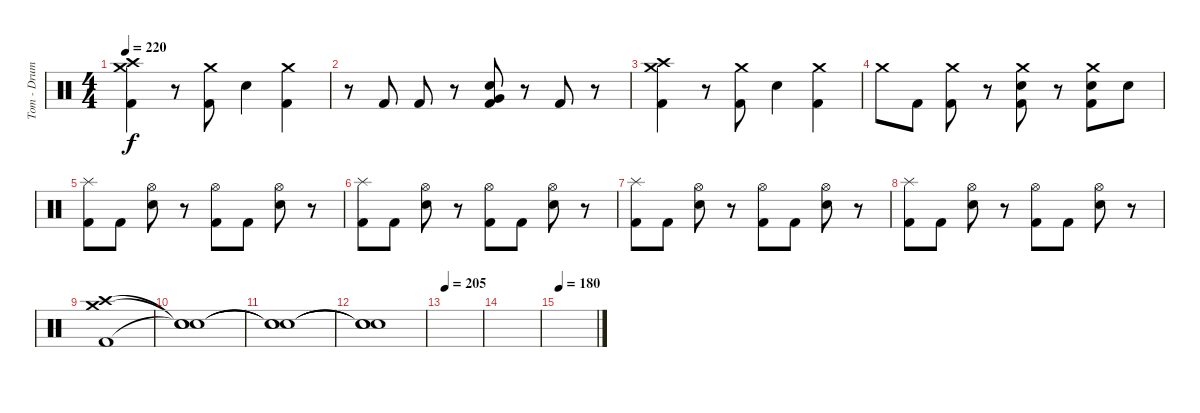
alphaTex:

\track ("Tom - Drums" "Tom - Drum") {instrument percussion}
\staff {score}
\articulation defaults
\ts (4 4)
\tempo 220
\clef neutral
\ks c
("Crash high (hit)" "Crash medium (hit)" "Kick (hit) 2").4{dy f} r.8 ("Crash medium (hit)" "Kick (hit) 2").8 "Electric Snare (hit)".4 ("Crash medium (hit)" "Kick (hit) 2").4 |
r.8 "Kick (hit) 2".8 "Kick (hit) 2".8 r.8 ("Electric Snare (hit)" "Kick (hit) 2" "Very Low Tom (hit)").8 r.8 "Kick (hit) 2".8 r.8 |
("Crash high (hit)" "Crash medium (hit)" "Kick (hit) 2").4 r.8 ("Crash medium (hit)" "Kick (hit) 2").8 "Electric Snare (hit)".4 ("Crash medium (hit)" "Kick (hit) 2").4 |
"Crash medium (hit)".8 "Kick (hit) 2".8 ("Crash medium (hit)" "Kick (hit) 2").8 r.8 ("Crash medium (hit)" "Electric Snare (hit)" "Kick (hit) 2").8 r.8 ("Crash medium (hit)" "Electric Snare (hit)" "Kick (hit) 2").8 "Electric Snare (hit)".8 |
("Splash (hit)" "Kick (hit) 2").8 "Kick (hit) 2".8 ("Hi-Hat (open)" "Electric Snare (hit)").8 r.8 ("Hi-Hat (open)" "Kick (hit) 2").8 "Kick (hit) 2".8 ("Hi-Hat (open)" "Electric Snare (hit)").8 r.8 |
("Splash (hit)" "Kick (hit) 2").8 "Kick (hit) 2".8 ("Hi-Hat (open)" "Electric Snare (hit)").8 r.8 ("Hi-Hat (open)" "Kick (hit) 2").8 "Kick (hit) 2".8 ("Hi-Hat (open)" "Electric Snare (hit)").8 r.8 |
("Splash (hit)" "Kick (hit) 2").8 "Kick (hit) 2".8 ("Hi-Hat (open)" "Electric Snare (hit)").8 r.8 ("Hi-Hat (open)" "Kick (hit) 2").8 "Kick (hit) 2".8 ("Hi-Hat (open)" "Electric Snare (hit)").8 r.8 |
("Splash (hit)" "Kick (hit) 2").8 "Kick (hit) 2".8 ("Hi-Hat (open)" "Electric Snare (hit)").8 r.8 ("Hi-Hat (open)" "Kick (hit) 2").8 "Kick (hit) 2".8 ("Hi-Hat (open)" "Electric Snare (hit)").8 r.8 |
("Crash medium (hit)" "Crash high (hit)" "Kick (hit) 2").1 |
("Snare (hit)"{t} "Snare (hit)"{t} "Snare (hit)"{t}).1 |
("Snare (hit)"{t} "Snare (hit)"{t} "Snare (hit)"{t}).1 |
("Snare (hit)"{t} "Snare (hit)"{t} "Snare (hit)"{t}).1 |
\tempo 205
|
|
\tempo 180
